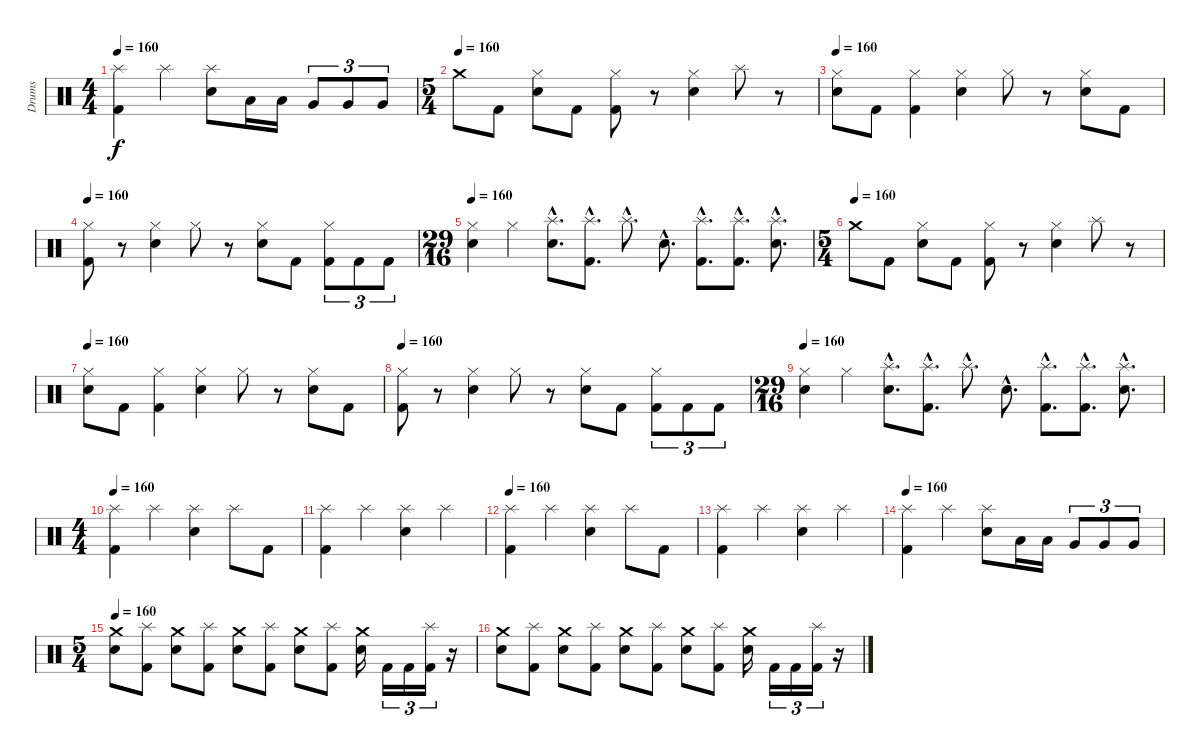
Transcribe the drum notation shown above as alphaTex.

\track ("Drums" "Drums") {instrument percussion}
\staff {score}
\articulation defaults
\ts (4 4)
\tempo 160
\clef neutral
\ks c
("Kick (hit) 2" "Splash (hit)").4{dy f} "Splash (hit)".4 ("Electric Snare (hit)" "Splash (hit)").8 "Low Tom (hit)".16 "Low Tom (hit)".16 "Very Low Tom (hit)".8{tu (3 2)} "Very Low Tom (hit)".8{tu (3 2)} "Very Low Tom (hit)".8{tu (3 2)} |
\ts (5 4)
\tempo (160)
"Crash medium (hit)".8 "Kick (hit) 2".8 ("Electric Snare (hit)" "Hi-Hat (closed)").8 "Kick (hit) 2".8 ("Kick (hit) 2" "Hi-Hat (closed)").8 r.8 ("Electric Snare (hit)" "Hi-Hat (closed)").4 "Splash (hit)".8 r.8 |
\tempo 160
("Electric Snare (hit)" "Hi-Hat (closed)").8 "Kick (hit) 2".8 ("Kick (hit) 2" "Hi-Hat (closed)").4 ("Electric Snare (hit)" "Hi-Hat (closed)").4 "Hi-Hat (closed)".8 r.8 ("Electric Snare (hit)" "Hi-Hat (closed)").8 "Kick (hit) 2".8 |
\tempo 160
("Kick (hit) 2" "Hi-Hat (closed)").8 r.8 ("Electric Snare (hit)" "Hi-Hat (closed)").4 "Hi-Hat (closed)".8 r.8 ("Electric Snare (hit)" "Hi-Hat (closed)").8 "Kick (hit) 2".8 ("Kick (hit) 2" "Hi-Hat (closed)").8{tu (3 2)} "Kick (hit) 2".8{tu (3 2)} "Kick (hit) 2".8{tu (3 2)} |
\ts (29 16)
\tempo 160
("Electric Snare (hit)" "Hi-Hat (closed)").4 "Hi-Hat (closed)".4 ("Electric Snare (hit)"{hac} "Splash (hit)"{hac}).8{d} ("Kick (hit) 2"{hac} "Splash (hit)"{hac}).8{d} "Splash (hit)"{hac}.8{d} "Electric Snare (hit)"{hac}.8{d} ("Kick (hit) 2"{hac} "Splash (hit)"{hac}).8{d} ("Kick (hit) 2"{hac} "Splash (hit)"{hac}).8{d} ("Electric Snare (hit)"{hac} "Splash (hit)"{hac}).8{d} |
\ts (5 4)
\tempo (160)
"Crash medium (hit)".8 "Kick (hit) 2".8 ("Electric Snare (hit)" "Hi-Hat (closed)").8 "Kick (hit) 2".8 ("Kick (hit) 2" "Hi-Hat (closed)").8 r.8 ("Electric Snare (hit)" "Hi-Hat (closed)").4 "Splash (hit)".8 r.8 |
\tempo 160
("Electric Snare (hit)" "Hi-Hat (closed)").8 "Kick (hit) 2".8 ("Kick (hit) 2" "Hi-Hat (closed)").4 ("Electric Snare (hit)" "Hi-Hat (closed)").4 "Hi-Hat (closed)".8 r.8 ("Electric Snare (hit)" "Hi-Hat (closed)").8 "Kick (hit) 2".8 |
\tempo 160
("Kick (hit) 2" "Hi-Hat (closed)").8 r.8 ("Electric Snare (hit)" "Hi-Hat (closed)").4 "Hi-Hat (closed)".8 r.8 ("Electric Snare (hit)" "Hi-Hat (closed)").8 "Kick (hit) 2".8 ("Kick (hit) 2" "Hi-Hat (closed)").8{tu (3 2)} "Kick (hit) 2".8{tu (3 2)} "Kick (hit) 2".8{tu (3 2)} |
\ts (29 16)
\tempo 160
("Electric Snare (hit)" "Hi-Hat (closed)").4 "Hi-Hat (closed)".4 ("Electric Snare (hit)"{hac} "Splash (hit)"{hac}).8{d} ("Kick (hit) 2"{hac} "Splash (hit)"{hac}).8{d} "Splash (hit)"{hac}.8{d} "Electric Snare (hit)"{hac}.8{d} ("Kick (hit) 2"{hac} "Splash (hit)"{hac}).8{d} ("Kick (hit) 2"{hac} "Splash (hit)"{hac}).8{d} ("Electric Snare (hit)"{hac} "Splash (hit)"{hac}).8{d} |
\ts (4 4)
\tempo 160
("Kick (hit) 2" "Splash (hit)").4 "Splash (hit)".4 ("Electric Snare (hit)" "Splash (hit)").4 "Splash (hit)".8 "Kick (hit) 2".8 |
("Kick (hit) 2" "Splash (hit)").4 "Splash (hit)".4 ("Electric Snare (hit)" "Splash (hit)").4 "Splash (hit)".4 |
\tempo 160
("Kick (hit) 2" "Splash (hit)").4 "Splash (hit)".4 ("Electric Snare (hit)" "Splash (hit)").4 "Splash (hit)".8 "Kick (hit) 2".8 |
("Kick (hit) 2" "Splash (hit)").4 "Splash (hit)".4 ("Electric Snare (hit)" "Splash (hit)").4 "Splash (hit)".4 |
\tempo 160
("Kick (hit) 2" "Splash (hit)").4 "Splash (hit)".4 ("Electric Snare (hit)" "Splash (hit)").8 "Low Tom (hit)".16 "Low Tom (hit)".16 "Very Low Tom (hit)".8{tu (3 2)} "Very Low Tom (hit)".8{tu (3 2)} "Very Low Tom (hit)".8{tu (3 2)} |
\ts (5 4)
\tempo 160
("Electric Snare (hit)" "Crash medium (hit)").8 ("Kick (hit) 2" "Splash (hit)").8 ("Electric Snare (hit)" "Crash medium (hit)").8 ("Kick (hit) 2" "Splash (hit)").8 ("Electric Snare (hit)" "Crash medium (hit)").8 ("Kick (hit) 2" "Splash (hit)").8 ("Electric Snare (hit)" "Crash medium (hit)").8 ("Kick (hit) 2" "Splash (hit)").8 ("Electric Snare (hit)" "Crash medium (hit)").16 "Kick (hit) 2".16{tu (3 2)} "Kick (hit) 2".16{tu (3 2)} ("Kick (hit) 2" "Splash (hit)").16{tu (3 2)} r.16 |
("Electric Snare (hit)" "Crash medium (hit)").8 ("Kick (hit) 2" "Splash (hit)").8 ("Electric Snare (hit)" "Crash medium (hit)").8 ("Kick (hit) 2" "Splash (hit)").8 ("Electric Snare (hit)" "Crash medium (hit)").8 ("Kick (hit) 2" "Splash (hit)").8 ("Electric Snare (hit)" "Crash medium (hit)").8 ("Kick (hit) 2" "Splash (hit)").8 ("Electric Snare (hit)" "Crash medium (hit)").16 "Kick (hit) 2".16{tu (3 2)} "Kick (hit) 2".16{tu (3 2)} ("Kick (hit) 2" "Splash (hit)").16{tu (3 2)} r.16
